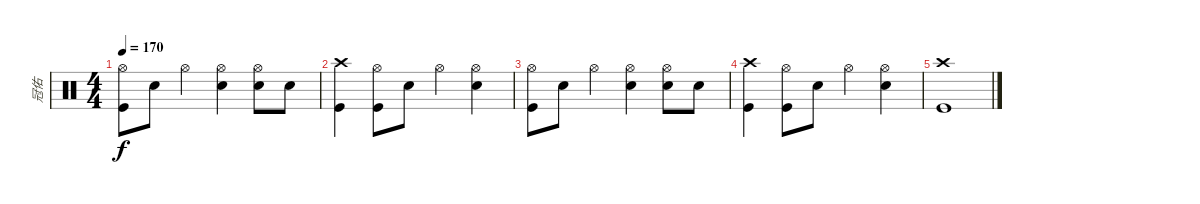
\track ("冠佑" "冠佑") {instrument percussion}
\staff {score}
\articulation defaults
\ts (4 4)
\tempo 170
\clef neutral
\ks c
("Hi-Hat (open)" "Kick (hit)").8{dy f} "Snare (hit) 2".8 "Hi-Hat (open)".4 ("Hi-Hat (open)" "Snare (hit) 2").4 ("Hi-Hat (open)" "Snare (hit) 2").8 "Snare (hit) 2".8 |
("Crash high (hit)" "Kick (hit)").4 ("Hi-Hat (open)" "Kick (hit)").8 "Snare (hit) 2".8 "Hi-Hat (open)".4 ("Hi-Hat (open)" "Snare (hit) 2").4 |
("Hi-Hat (open)" "Kick (hit)").8 "Snare (hit) 2".8 "Hi-Hat (open)".4 ("Hi-Hat (open)" "Snare (hit) 2").4 ("Hi-Hat (open)" "Snare (hit) 2").8 "Snare (hit) 2".8 |
("Crash high (hit)" "Kick (hit)").4 ("Hi-Hat (open)" "Kick (hit)").8 "Snare (hit) 2".8 "Hi-Hat (open)".4 ("Hi-Hat (open)" "Snare (hit) 2").4 |
("Crash high (hit)" "Kick (hit)").1
